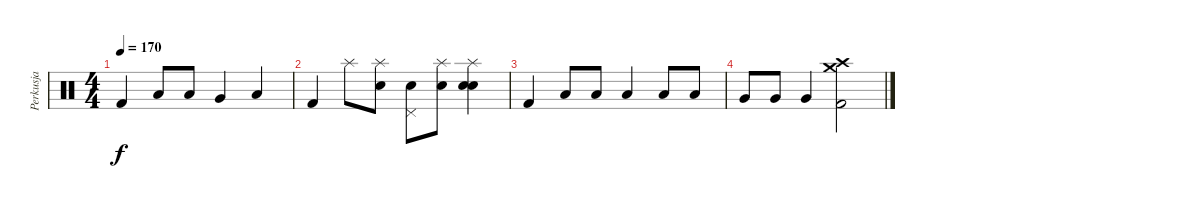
\track ("Perkusja" "Perkusja") {instrument percussion}
\staff {score}
\articulation defaults
\ts (4 4)
\tempo 170
\clef neutral
\ks c "Kick (hit) 2".4{dy f} "Low Tom (hit)".8 "Low Tom (hit)".8 "Very Low Tom (hit)".4 "Low Tom (hit)".4
|
"Kick (hit) 2".4 "Splash (hit)".8 ("Splash (hit)" "Electric Snare (hit)").8 ("Pedal Hi-Hat (hit)" "Electric Snare (hit)").8 ("Splash (hit)" "Electric Snare (hit)").8 ("Splash (hit)" "Electric Snare (hit)" "Snare (hit) 2").4 |
"Kick (hit) 2".4 "Low Tom (hit)".8 "Low Tom (hit)".8 "Low Tom (hit)".4 "Low Tom (hit)".8 "Low Tom (hit)".8 |
"Very Low Tom (hit)".8 "Very Low Tom (hit)".8 "Very Low Tom (hit)".4 ("Crash high (hit)" "Crash medium (hit)" "Kick (hit) 2").2
